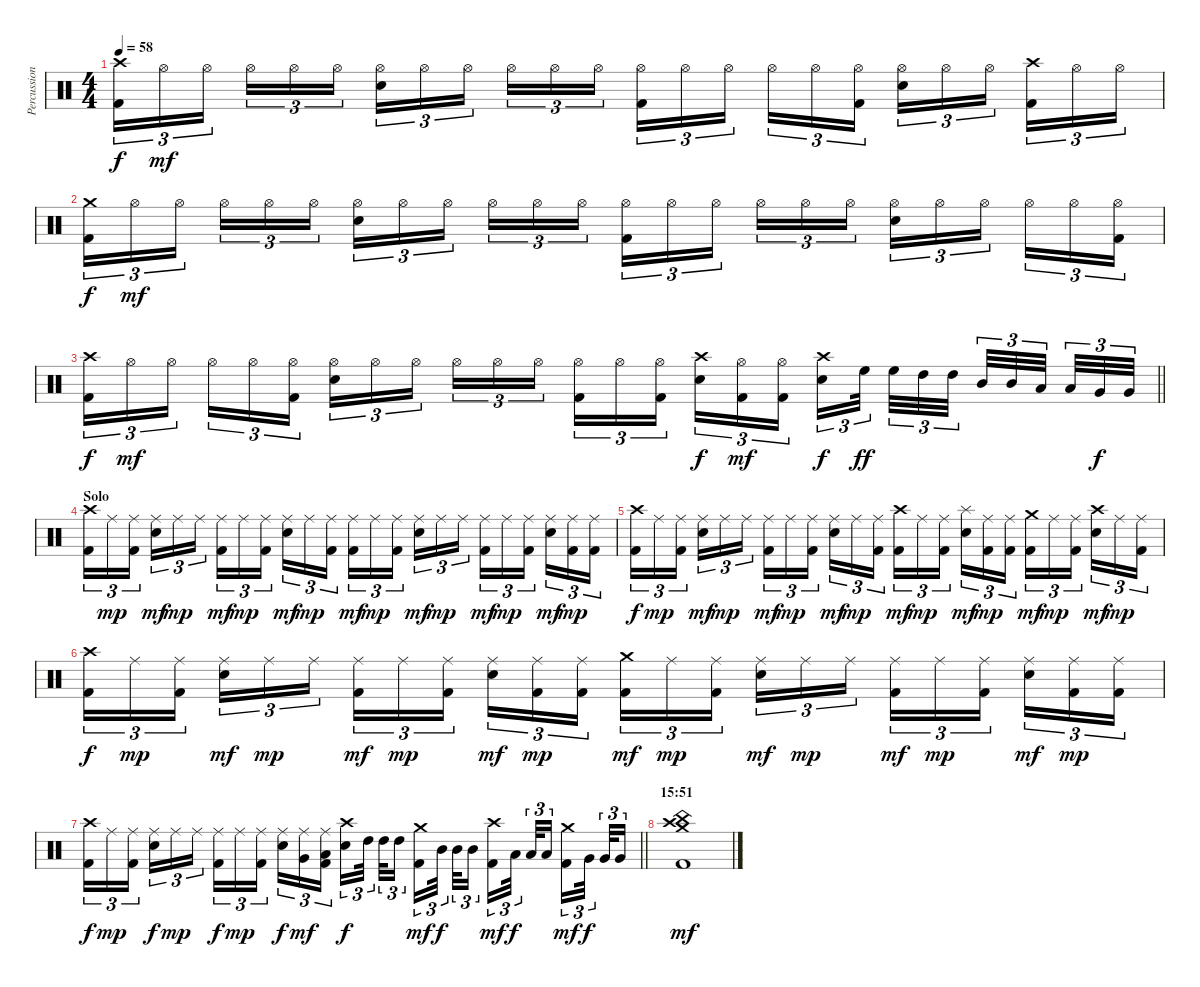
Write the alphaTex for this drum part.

\track ("Percussions" "Percussion") {instrument percussion}
\staff {score}
\articulation defaults
\ts (4 4)
\tempo 58
\clef neutral
\ks c
("Crash high (hit)" "Kick (hit) 2").16{tu (3 2) dy f} "Hi-Hat (open)".16{tu (3 2) dy mf} "Hi-Hat (open)".16{tu (3 2) beam splitsecondary} "Hi-Hat (open)".16{tu (3 2)} "Hi-Hat (open)".16{tu (3 2)} "Hi-Hat (open)".16{tu (3 2)} ("Hi-Hat (open)" "Snare (hit) 2").16{tu (3 2)} "Hi-Hat (open)".16{tu (3 2)} "Hi-Hat (open)".16{tu (3 2) beam splitsecondary} "Hi-Hat (open)".16{tu (3 2)} "Hi-Hat (open)".16{tu (3 2)} "Hi-Hat (open)".16{tu (3 2)} ("Hi-Hat (open)" "Kick (hit) 2").16{tu (3 2)} "Hi-Hat (open)".16{tu (3 2)} "Hi-Hat (open)".16{tu (3 2) beam splitsecondary} "Hi-Hat (open)".16{tu (3 2)} "Hi-Hat (open)".16{tu (3 2)} ("Hi-Hat (open)" "Kick (hit) 2").16{tu (3 2)} ("Hi-Hat (open)" "Snare (hit) 2").16{tu (3 2)} "Hi-Hat (open)".16{tu (3 2)} "Hi-Hat (open)".16{tu (3 2) beam splitsecondary} ("Crash high (hit)" "Kick (hit) 2").16{tu (3 2)} "Hi-Hat (open)".16{tu (3 2)} "Hi-Hat (open)".16{tu (3 2)} |
("Crash medium (hit)" "Kick (hit) 2").16{tu (3 2) dy f} "Hi-Hat (open)".16{tu (3 2) dy mf} "Hi-Hat (open)".16{tu (3 2) beam splitsecondary} "Hi-Hat (open)".16{tu (3 2)} "Hi-Hat (open)".16{tu (3 2)} "Hi-Hat (open)".16{tu (3 2)} ("Hi-Hat (open)" "Snare (hit) 2").16{tu (3 2)} "Hi-Hat (open)".16{tu (3 2)} "Hi-Hat (open)".16{tu (3 2) beam splitsecondary} "Hi-Hat (open)".16{tu (3 2)} "Hi-Hat (open)".16{tu (3 2)} "Hi-Hat (open)".16{tu (3 2)} ("Hi-Hat (open)" "Kick (hit) 2").16{tu (3 2)} "Hi-Hat (open)".16{tu (3 2)} "Hi-Hat (open)".16{tu (3 2) beam splitsecondary} "Hi-Hat (open)".16{tu (3 2)} "Hi-Hat (open)".16{tu (3 2)} "Hi-Hat (open)".16{tu (3 2)} ("Hi-Hat (open)" "Snare (hit) 2").16{tu (3 2)} "Hi-Hat (open)".16{tu (3 2)} "Hi-Hat (open)".16{tu (3 2) beam splitsecondary} "Hi-Hat (open)".16{tu (3 2)} "Hi-Hat (open)".16{tu (3 2)} ("Hi-Hat (open)" "Kick (hit) 2").16{tu (3 2)} |
\barLineRight lightlight
("Crash high (hit)" "Kick (hit) 2").16{tu (3 2) dy f} "Hi-Hat (open)".16{tu (3 2) dy mf} "Hi-Hat (open)".16{tu (3 2) beam splitsecondary} "Hi-Hat (open)".16{tu (3 2)} "Hi-Hat (open)".16{tu (3 2)} ("Hi-Hat (open)" "Kick (hit) 2").16{tu (3 2)} ("Hi-Hat (open)" "Snare (hit) 2").16{tu (3 2)} "Hi-Hat (open)".16{tu (3 2)} "Hi-Hat (open)".16{tu (3 2) beam splitsecondary} "Hi-Hat (open)".16{tu (3 2)} "Hi-Hat (open)".16{tu (3 2)} "Hi-Hat (open)".16{tu (3 2)} ("Hi-Hat (open)" "Kick (hit) 2").16{tu (3 2)} "Hi-Hat (open)".16{tu (3 2)} ("Hi-Hat (open)" "Kick (hit) 2").16{tu (3 2) beam splitsecondary} ("Crash high (hit)" "Snare (hit) 2").16{tu (3 2) dy f} ("Hi-Hat (open)" "Kick (hit) 2").16{tu (3 2) dy mf} ("Hi-Hat (open)" "Kick (hit) 2").16{tu (3 2)} ("Crash high (hit)" "Snare (hit) 2").16{tu (3 2) dy f} "High Floor Tom (hit)".32{tu (3 2) dy ff beam splitsecondary} "High Floor Tom (hit)".32{tu (3 2)} "High Tom (hit)".32{tu (3 2)} "High Tom (hit)".32{tu (3 2) beam splitsecondary} "Mid Tom (hit)".32{tu (3 2)} "Mid Tom (hit)".32{tu (3 2)} "Low Tom (hit)".32{tu (3 2) beam splitsecondary} "Low Tom (hit)".32{tu (3 2)} "Very Low Tom (hit)".32{tu (3 2) dy f} "Very Low Tom (hit)".32{tu (3 2)} |
\section ("" "Solo")
("Crash high (hit)" "Kick (hit) 2").16{tu (3 2)} "Ride (middle)".16{tu (3 2) dy mp} ("Ride (middle)" "Kick (hit) 2").16{tu (3 2) beam splitsecondary} ("Ride (middle)" "Snare (hit) 2").16{tu (3 2) dy mf} "Ride (middle)".16{tu (3 2) dy mp} "Ride (middle)".16{tu (3 2)} ("Ride (middle)" "Kick (hit) 2").16{tu (3 2) dy mf} "Ride (middle)".16{tu (3 2) dy mp} ("Ride (middle)" "Kick (hit) 2").16{tu (3 2) beam splitsecondary} ("Ride (middle)" "Snare (hit) 2").16{tu (3 2) dy mf} "Ride (middle)".16{tu (3 2) dy mp} ("Ride (middle)" "Kick (hit) 2").16{tu (3 2)} ("Ride (middle)" "Kick (hit) 2").16{tu (3 2) dy mf} "Ride (middle)".16{tu (3 2) dy mp} ("Ride (middle)" "Kick (hit) 2").16{tu (3 2) beam splitsecondary} ("Ride (middle)" "Snare (hit) 2").16{tu (3 2) dy mf} "Ride (middle)".16{tu (3 2) dy mp} "Ride (middle)".16{tu (3 2)} ("Ride (middle)" "Kick (hit) 2").16{tu (3 2) dy mf} "Ride (middle)".16{tu (3 2) dy mp} ("Ride (middle)" "Kick (hit) 2").16{tu (3 2) beam splitsecondary} ("Ride (middle)" "Snare (hit) 2").16{tu (3 2) dy mf} ("Ride (middle)" "Kick (hit) 2").16{tu (3 2) dy mp} ("Ride (middle)" "Kick (hit) 2").16{tu (3 2)} |
("Crash high (hit)" "Kick (hit) 2").16{tu (3 2) dy f} "Ride (middle)".16{tu (3 2) dy mp} ("Ride (middle)" "Kick (hit) 2").16{tu (3 2) beam splitsecondary} ("Ride (middle)" "Snare (hit) 2").16{tu (3 2) dy mf} "Ride (middle)".16{tu (3 2) dy mp} "Ride (middle)".16{tu (3 2)} ("Ride (middle)" "Kick (hit) 2").16{tu (3 2) dy mf} "Ride (middle)".16{tu (3 2) dy mp} ("Ride (middle)" "Kick (hit) 2").16{tu (3 2) beam splitsecondary} ("Ride (middle)" "Snare (hit) 2").16{tu (3 2) dy mf} "Ride (middle)".16{tu (3 2) dy mp} ("Ride (middle)" "Kick (hit) 2").16{tu (3 2)} ("Crash high (hit)" "Kick (hit) 2").16{tu (3 2) dy mf} "Ride (middle)".16{tu (3 2) dy mp} ("Ride (middle)" "Kick (hit) 2").16{tu (3 2) beam splitsecondary} ("Splash (hit)" "Snare (hit) 2").16{tu (3 2) dy mf} ("Ride (middle)" "Kick (hit) 2").16{tu (3 2) dy mp} ("Ride (middle)" "Kick (hit) 2").16{tu (3 2)} ("Crash medium (hit)" "Kick (hit) 2").16{tu (3 2) dy mf} "Ride (middle)".16{tu (3 2) dy mp} ("Ride (middle)" "Kick (hit) 2").16{tu (3 2) beam splitsecondary} ("Crash high (hit)" "Snare (hit) 2").16{tu (3 2) dy mf} "Ride (middle)".16{tu (3 2) dy mp} ("Ride (middle)" "Kick (hit) 2").16{tu (3 2)} |
("Crash high (hit)" "Kick (hit) 2").16{tu (3 2) dy f} "Ride (middle)".16{tu (3 2) dy mp} ("Ride (middle)" "Kick (hit) 2").16{tu (3 2) beam splitsecondary} ("Ride (middle)" "Snare (hit) 2").16{tu (3 2) dy mf} "Ride (middle)".16{tu (3 2) dy mp} "Ride (middle)".16{tu (3 2)} ("Ride (middle)" "Kick (hit) 2").16{tu (3 2) dy mf} "Ride (middle)".16{tu (3 2) dy mp} ("Ride (middle)" "Kick (hit) 2").16{tu (3 2) beam splitsecondary} ("Ride (middle)" "Snare (hit) 2").16{tu (3 2) dy mf} ("Ride (middle)" "Kick (hit) 2").16{tu (3 2) dy mp} ("Ride (middle)" "Kick (hit) 2").16{tu (3 2)} ("Crash medium (hit)" "Kick (hit) 2").16{tu (3 2) dy mf} "Ride (middle)".16{tu (3 2) dy mp} ("Ride (middle)" "Kick (hit) 2").16{tu (3 2) beam splitsecondary} ("Ride (middle)" "Snare (hit) 2").16{tu (3 2) dy mf} "Ride (middle)".16{tu (3 2) dy mp} "Ride (middle)".16{tu (3 2)} ("Ride (middle)" "Kick (hit) 2").16{tu (3 2) dy mf} "Ride (middle)".16{tu (3 2) dy mp} ("Ride (middle)" "Kick (hit) 2").16{tu (3 2) beam splitsecondary} ("Ride (middle)" "Snare (hit) 2").16{tu (3 2) dy mf} ("Ride (middle)" "Kick (hit) 2").16{tu (3 2) dy mp} ("Ride (middle)" "Kick (hit) 2").16{tu (3 2)} |
\barLineRight lightlight
("Crash high (hit)" "Kick (hit) 2").16{tu (3 2) dy f} "Ride (middle)".16{tu (3 2) dy mp} ("Ride (middle)" "Kick (hit) 2").16{tu (3 2) beam splitsecondary} ("Ride (middle)" "Snare (hit) 2").16{tu (3 2) dy f} "Ride (middle)".16{tu (3 2) dy mp} "Ride (middle)".16{tu (3 2)} ("Ride (middle)" "Kick (hit) 2").16{tu (3 2) dy f} "Ride (middle)".16{tu (3 2) dy mp} ("Ride (middle)" "Kick (hit) 2").16{tu (3 2) beam splitsecondary} ("Ride (middle)" "Snare (hit) 2").16{tu (3 2) dy f} ("Ride (middle)" "Very Low Tom (hit)").16{tu (3 2) dy mf} ("Ride (middle)" "Low Floor Tom (hit)" "Kick (hit) 2").16{tu (3 2)} ("Crash high (hit)" "Snare (hit) 2").16{tu (3 2) dy f} "High Tom (hit)".32{tu (3 2) beam splitsecondary} "High Tom (hit)".32{tu (3 2)} "High Tom (hit)".16{tu (3 2) beam splitsecondary} ("Crash medium (hit)" "Kick (hit) 2").16{tu (3 2) dy mf} "Mid Tom (hit)".32{tu (3 2) dy f beam splitsecondary} "Mid Tom (hit)".32{tu (3 2)} "Mid Tom (hit)".16{tu (3 2)} ("Crash high (hit)" "Kick (hit) 2").16{tu (3 2) dy mf} "Low Tom (hit)".32{tu (3 2) dy f beam splitsecondary} "Low Tom (hit)".32{tu (3 2)} "Low Tom (hit)".16{tu (3 2) beam splitsecondary} ("Crash medium (hit)" "Kick (hit) 2").16{tu (3 2) dy mf} "Very Low Tom (hit)".32{tu (3 2) dy f beam splitsecondary} "Very Low Tom (hit)".32{tu (3 2)} "Very Low Tom (hit)".16{tu (3 2)} |
\section ("" "15:51")
("China (hit)" "Crash high (hit)" "Crash medium (hit)" "Kick (hit) 2").1{dy mf}
